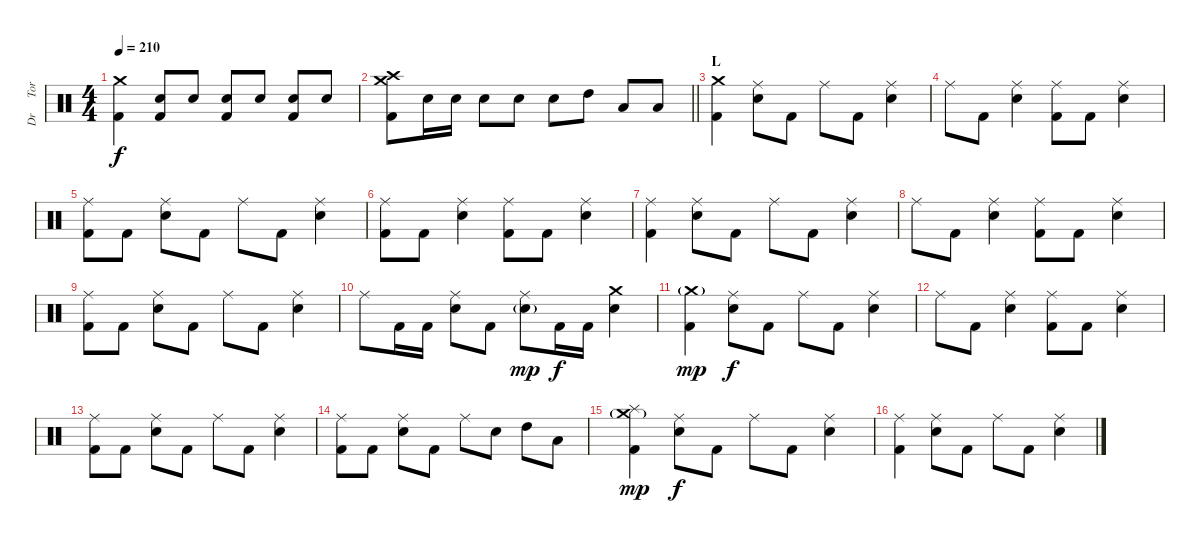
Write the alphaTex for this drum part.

\track ("Dr     Tora" "Dr     Tor") {instrument percussion}
\staff {score}
\articulation defaults
\ts (4 4)
\tempo 210
\clef neutral
\ks c
("Crash medium (hit)" "Kick (hit) 2").4{dy f} ("Electric Snare (hit)" "Kick (hit) 2").8 "Electric Snare (hit)".8 ("Electric Snare (hit)" "Kick (hit) 2").8 "Electric Snare (hit)".8 ("Electric Snare (hit)" "Kick (hit) 2").8 "Electric Snare (hit)".8 |
\barLineRight lightlight
("Crash high (hit)" "Crash medium (hit)" "Kick (hit) 2").8 "Electric Snare (hit)".16 "Electric Snare (hit)".16 "Electric Snare (hit)".8 "Electric Snare (hit)".8 "Electric Snare (hit)".8 "High Tom (hit)".8 "Low Tom (hit)".8 "Low Tom (hit)".8 |
\section ("" "L")
("Crash medium (hit)" "Kick (hit) 2").4 ("Ride (middle)" "Electric Snare (hit)").8 "Kick (hit) 2".8 "Ride (middle)".8 "Kick (hit) 2".8 ("Ride (middle)" "Electric Snare (hit)").4 |
"Ride (middle)".8 "Kick (hit) 2".8 ("Ride (middle)" "Electric Snare (hit)").4 ("Ride (middle)" "Kick (hit) 2").8 "Kick (hit) 2".8 ("Ride (middle)" "Electric Snare (hit)").4 |
("Ride (middle)" "Kick (hit) 2").8 "Kick (hit) 2".8 ("Ride (middle)" "Electric Snare (hit)").8 "Kick (hit) 2".8 "Ride (middle)".8 "Kick (hit) 2".8 ("Ride (middle)" "Electric Snare (hit)").4 |
("Ride (middle)" "Kick (hit) 2").8 "Kick (hit) 2".8 ("Ride (middle)" "Electric Snare (hit)").4 ("Ride (middle)" "Kick (hit) 2").8 "Kick (hit) 2".8 ("Ride (middle)" "Electric Snare (hit)").4 |
("Ride (middle)" "Kick (hit) 2").4 ("Ride (middle)" "Electric Snare (hit)").8 "Kick (hit) 2".8 "Ride (middle)".8 "Kick (hit) 2".8 ("Ride (middle)" "Electric Snare (hit)").4 |
"Ride (middle)".8 "Kick (hit) 2".8 ("Ride (middle)" "Electric Snare (hit)").4 ("Ride (middle)" "Kick (hit) 2").8 "Kick (hit) 2".8 ("Ride (middle)" "Electric Snare (hit)").4 |
("Ride (middle)" "Kick (hit) 2").8 "Kick (hit) 2".8 ("Ride (middle)" "Electric Snare (hit)").8 "Kick (hit) 2".8 "Ride (middle)".8 "Kick (hit) 2".8 ("Ride (middle)" "Electric Snare (hit)").4 |
"Ride (middle)".8 "Kick (hit) 2".16 "Kick (hit) 2".16 ("Ride (middle)" "Electric Snare (hit)").8 "Kick (hit) 2".8 ("Ride (middle)" "Electric Snare (hit)"{g}).8{dy mp} "Kick (hit) 2".16{dy f} "Kick (hit) 2".16 ("Crash medium (hit)" "Electric Snare (hit)").4 |
("Crash medium (hit)"{g} "Kick (hit) 2").4{dy mp} ("Ride (middle)" "Electric Snare (hit)").8{dy f} "Kick (hit) 2".8 "Ride (middle)".8 "Kick (hit) 2".8 ("Ride (middle)" "Electric Snare (hit)").4 |
"Ride (middle)".8 "Kick (hit) 2".8 ("Ride (middle)" "Electric Snare (hit)").4 ("Ride (middle)" "Kick (hit) 2").8 "Kick (hit) 2".8 ("Ride (middle)" "Electric Snare (hit)").4 |
("Ride (middle)" "Kick (hit) 2").8 "Kick (hit) 2".8 ("Ride (middle)" "Electric Snare (hit)").8 "Kick (hit) 2".8 "Ride (middle)".8 "Kick (hit) 2".8 ("Ride (middle)" "Electric Snare (hit)").4 |
("Ride (middle)" "Kick (hit) 2").8 "Kick (hit) 2".8 ("Ride (middle)" "Electric Snare (hit)").8 "Kick (hit) 2".8 "Ride (middle)".8 "Electric Snare (hit)".8 "High Tom (hit)".8 "Low Tom (hit)".8 |
("Splash (hit)" "Crash medium (hit)"{g} "Kick (hit) 2").4{dy mp} ("Ride (middle)" "Electric Snare (hit)").8{dy f} "Kick (hit) 2".8 "Ride (middle)".8 "Kick (hit) 2".8 ("Ride (middle)" "Electric Snare (hit)").4 |
("Ride (middle)" "Kick (hit) 2").4 ("Ride (middle)" "Electric Snare (hit)").8 "Kick (hit) 2".8 "Ride (middle)".8 "Kick (hit) 2".8 ("Ride (middle)" "Electric Snare (hit)").4
